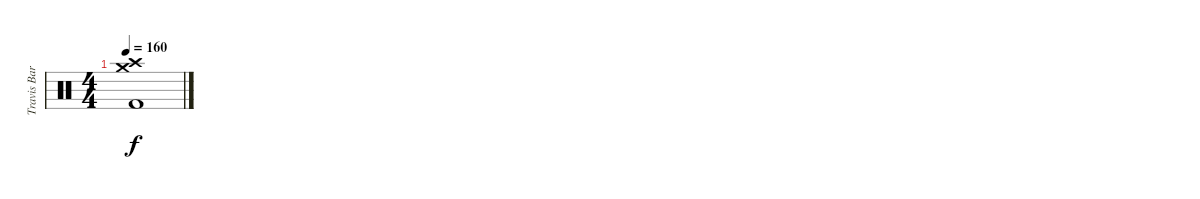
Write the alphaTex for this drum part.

\track ("Travis Barker Drums" "Travis Bar") {instrument percussion}
\staff {score}
\articulation defaults
\ts (4 4)
\tempo 160
\clef neutral
\ks c
("Crash high (hit)" "Crash medium (hit)" "Kick (hit) 2").1{dy f}
